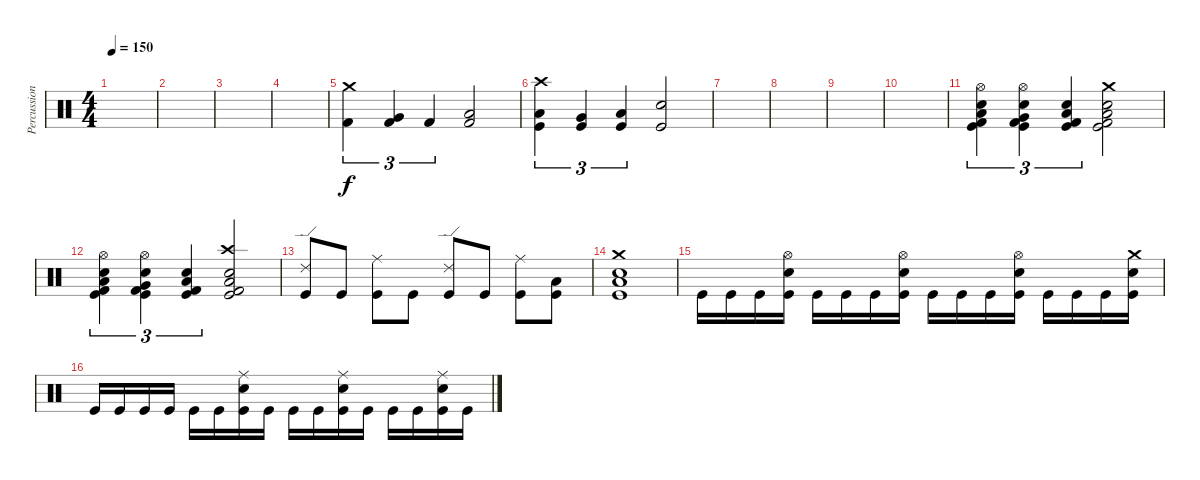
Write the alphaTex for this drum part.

\track ("Percussion" "Percussion") {instrument percussion}
\staff {score}
\articulation defaults
\ts (4 4)
\tempo 150
\clef neutral
\ks c
|
|
|
|
("Crash medium (hit)" "Kick (hit) 2").4{tu (3 2)} ("Very Low Tom (hit)" "Kick (hit) 2").4{tu (3 2)} "Kick (hit) 2".4{tu (3 2)} ("Low Tom (hit)" "Kick (hit) 2").2 |
("Crash high (hit)" "Low Floor Tom (hit)" "Kick (hit)").4{tu (3 2)} ("Very Low Tom (hit)" "Kick (hit)").4{tu (3 2)} ("Low Floor Tom (hit)" "Kick (hit)").4{tu (3 2)} ("Electric Snare (hit)" "Kick (hit)").2 |
|
|
|
|
("Hi-Hat (open)" "Electric Snare (hit)" "Low Floor Tom (hit)" "Kick (hit) 2" "Kick (hit)").4{tu (3 2)} ("Hi-Hat (open)" "Electric Snare (hit)" "Very Low Tom (hit)" "Kick (hit) 2" "Kick (hit)").4{tu (3 2)} ("Electric Snare (hit)" "Low Floor Tom (hit)" "Kick (hit) 2" "Kick (hit)").4{tu (3 2)} ("Crash medium (hit)" "Electric Snare (hit)" "Low Floor Tom (hit)" "Kick (hit) 2" "Kick (hit)").2 |
("Hi-Hat (open)" "Electric Snare (hit)" "Low Floor Tom (hit)" "Kick (hit) 2" "Kick (hit)").4{tu (3 2)} ("Hi-Hat (open)" "Electric Snare (hit)" "Very Low Tom (hit)" "Kick (hit) 2" "Kick (hit)").4{tu (3 2)} ("Electric Snare (hit)" "Low Floor Tom (hit)" "Kick (hit) 2" "Kick (hit)").4{tu (3 2)} ("Crash high (hit)" "Electric Snare (hit)" "Low Floor Tom (hit)" "Kick (hit) 2" "Kick (hit)").2 |
("Ride (edge) 2" "Kick (hit)").8 "Kick (hit)".8 ("Ride (middle)" "Kick (hit)").8 "Kick (hit)".8 ("Ride (edge) 2" "Kick (hit)").8 "Kick (hit)".8 ("Ride (middle)" "Kick (hit)").8 ("Low Floor Tom (hit)" "Kick (hit)").8 |
("Kick (hit)" "Crash medium (hit)" "Electric Snare (hit)" "Low Floor Tom (hit)").1 |
"Kick (hit)".16 "Kick (hit)".16 "Kick (hit)".16 ("Hi-Hat (open)" "Electric Snare (hit)" "Kick (hit)").16 "Kick (hit)".16 "Kick (hit)".16 "Kick (hit)".16 ("Hi-Hat (open)" "Electric Snare (hit)" "Kick (hit)").16 "Kick (hit)".16 "Kick (hit)".16 "Kick (hit)".16 ("Hi-Hat (open)" "Electric Snare (hit)" "Kick (hit)").16 "Kick (hit)".16 "Kick (hit)".16 "Kick (hit)".16 ("Crash medium (hit)" "Electric Snare (hit)" "Kick (hit)").16 |
"Kick (hit)".16 "Kick (hit)".16 "Kick (hit)".16 "Kick (hit)".16 "Kick (hit)".16 "Kick (hit)".16 ("Ride (middle)" "Electric Snare (hit)" "Kick (hit)").16 "Kick (hit)".16 "Kick (hit)".16 "Kick (hit)".16 ("Electric Snare (hit)" "Ride (middle)" "Kick (hit)").16 "Kick (hit)".16 "Kick (hit)".16 "Kick (hit)".16 ("Ride (middle)" "Electric Snare (hit)" "Kick (hit)").16 "Kick (hit)".16
